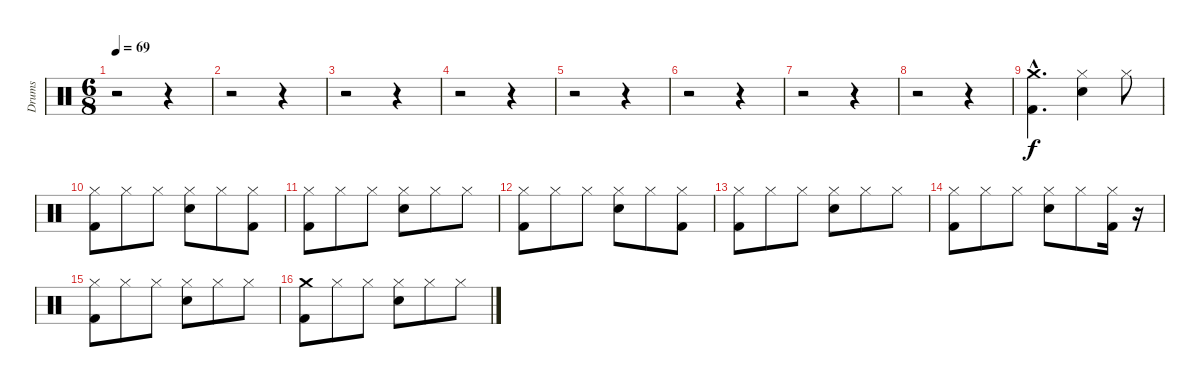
\track ("Drums" "Drums") {instrument percussion}
\staff {score}
\articulation defaults
\ts (6 8)
\tempo 69
\clef neutral
\ks c
r.2{dy f} r.4 |
r.2 r.4 |
r.2 r.4 |
r.2 r.4 |
r.2 r.4 |
r.2 r.4 |
r.2 r.4 |
r.2 r.4 |
("Kick (hit) 2"{hac} "Crash medium (hit)"{hac}).4{d} ("Snare (hit) 2" "Hi-Hat (closed)").4 "Hi-Hat (closed)".8 |
("Kick (hit) 2" "Hi-Hat (closed)").8 "Hi-Hat (closed)".8 "Hi-Hat (closed)".8 ("Snare (hit) 2" "Hi-Hat (closed)").8 "Hi-Hat (closed)".8 ("Kick (hit) 2" "Hi-Hat (closed)").8 |
("Kick (hit) 2" "Hi-Hat (closed)").8 "Hi-Hat (closed)".8 "Hi-Hat (closed)".8 ("Snare (hit) 2" "Hi-Hat (closed)").8 "Hi-Hat (closed)".8 "Hi-Hat (closed)".8 |
("Kick (hit) 2" "Hi-Hat (closed)").8 "Hi-Hat (closed)".8 "Hi-Hat (closed)".8 ("Snare (hit) 2" "Hi-Hat (closed)").8 "Hi-Hat (closed)".8 ("Kick (hit) 2" "Hi-Hat (closed)").8 |
("Kick (hit) 2" "Hi-Hat (closed)").8 "Hi-Hat (closed)".8 "Hi-Hat (closed)".8 ("Snare (hit) 2" "Hi-Hat (closed)").8 "Hi-Hat (closed)".8 "Hi-Hat (closed)".8 |
("Kick (hit) 2" "Hi-Hat (closed)").8 "Hi-Hat (closed)".8 "Hi-Hat (closed)".8 ("Snare (hit) 2" "Hi-Hat (closed)").8 "Hi-Hat (closed)".8 ("Kick (hit) 2" "Hi-Hat (closed)").16 r.16 |
("Kick (hit) 2" "Hi-Hat (closed)").8 "Hi-Hat (closed)".8 "Hi-Hat (closed)".8 ("Snare (hit) 2" "Hi-Hat (closed)").8 "Hi-Hat (closed)".8 "Hi-Hat (closed)".8 |
("Crash medium (hit)" "Kick (hit) 2").8 "Hi-Hat (closed)".8 "Hi-Hat (closed)".8 ("Snare (hit) 2" "Hi-Hat (closed)").8 "Hi-Hat (closed)".8 "Hi-Hat (closed)".8
